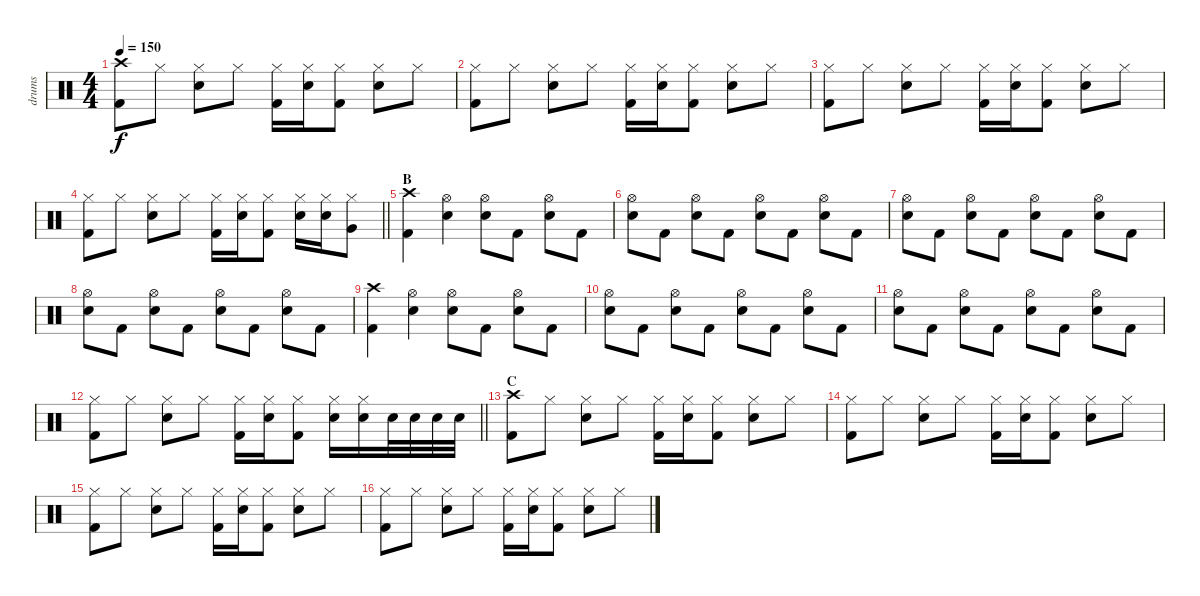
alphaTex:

\track ("drums" "drums") {instrument percussion}
\staff {score}
\articulation defaults
\ts (4 4)
\tempo 150
\clef neutral
\ks c
("Crash high (hit)" "Kick (hit) 2").8{dy f} "Hi-Hat (closed)".8 ("Hi-Hat (closed)" "Electric Snare (hit)").8 "Hi-Hat (closed)".8 ("Hi-Hat (closed)" "Kick (hit) 2").16 ("Hi-Hat (closed)" "Electric Snare (hit)").16 ("Hi-Hat (closed)" "Kick (hit) 2").8 ("Hi-Hat (closed)" "Electric Snare (hit)").8 "Hi-Hat (closed)".8 |
("Hi-Hat (closed)" "Kick (hit) 2").8 "Hi-Hat (closed)".8 ("Hi-Hat (closed)" "Electric Snare (hit)").8 "Hi-Hat (closed)".8 ("Hi-Hat (closed)" "Kick (hit) 2").16 ("Hi-Hat (closed)" "Electric Snare (hit)").16 ("Hi-Hat (closed)" "Kick (hit) 2").8 ("Hi-Hat (closed)" "Electric Snare (hit)").8 "Hi-Hat (closed)".8 |
("Hi-Hat (closed)" "Kick (hit) 2").8 "Hi-Hat (closed)".8 ("Hi-Hat (closed)" "Electric Snare (hit)").8 "Hi-Hat (closed)".8 ("Hi-Hat (closed)" "Kick (hit) 2").16 ("Hi-Hat (closed)" "Electric Snare (hit)").16 ("Hi-Hat (closed)" "Kick (hit) 2").8 ("Hi-Hat (closed)" "Electric Snare (hit)").8 "Hi-Hat (closed)".8 |
\barLineRight lightlight
("Hi-Hat (closed)" "Kick (hit) 2").8 "Hi-Hat (closed)".8 ("Hi-Hat (closed)" "Electric Snare (hit)").8 "Hi-Hat (closed)".8 ("Hi-Hat (closed)" "Kick (hit) 2").16 ("Hi-Hat (closed)" "Electric Snare (hit)").16 ("Hi-Hat (closed)" "Kick (hit) 2").8 ("Hi-Hat (closed)" "Electric Snare (hit)").16 ("Hi-Hat (closed)" "Electric Snare (hit)").16 ("Hi-Hat (closed)" "Very Low Tom (hit)").8 |
\section ("" "B")
("Crash high (hit)" "Kick (hit) 2").4 ("Hi-Hat (open)" "Electric Snare (hit)").4 ("Hi-Hat (open)" "Electric Snare (hit)").8 "Kick (hit) 2".8 ("Hi-Hat (open)" "Electric Snare (hit)").8 "Kick (hit) 2".8 |
("Hi-Hat (open)" "Electric Snare (hit)").8 "Kick (hit) 2".8 ("Hi-Hat (open)" "Electric Snare (hit)").8 "Kick (hit) 2".8 ("Hi-Hat (open)" "Electric Snare (hit)").8 "Kick (hit) 2".8 ("Hi-Hat (open)" "Electric Snare (hit)").8 "Kick (hit) 2".8 |
("Hi-Hat (open)" "Electric Snare (hit)").8 "Kick (hit) 2".8 ("Hi-Hat (open)" "Electric Snare (hit)").8 "Kick (hit) 2".8 ("Hi-Hat (open)" "Electric Snare (hit)").8 "Kick (hit) 2".8 ("Hi-Hat (open)" "Electric Snare (hit)").8 "Kick (hit) 2".8 |
("Hi-Hat (open)" "Electric Snare (hit)").8 "Kick (hit) 2".8 ("Hi-Hat (open)" "Electric Snare (hit)").8 "Kick (hit) 2".8 ("Hi-Hat (open)" "Electric Snare (hit)").8 "Kick (hit) 2".8 ("Hi-Hat (open)" "Electric Snare (hit)").8 "Kick (hit) 2".8 |
("Crash high (hit)" "Kick (hit) 2").4 ("Hi-Hat (open)" "Electric Snare (hit)").4 ("Hi-Hat (open)" "Electric Snare (hit)").8 "Kick (hit) 2".8 ("Hi-Hat (open)" "Electric Snare (hit)").8 "Kick (hit) 2".8 |
("Hi-Hat (open)" "Electric Snare (hit)").8 "Kick (hit) 2".8 ("Hi-Hat (open)" "Electric Snare (hit)").8 "Kick (hit) 2".8 ("Hi-Hat (open)" "Electric Snare (hit)").8 "Kick (hit) 2".8 ("Hi-Hat (open)" "Electric Snare (hit)").8 "Kick (hit) 2".8 |
("Hi-Hat (open)" "Electric Snare (hit)").8 "Kick (hit) 2".8 ("Hi-Hat (open)" "Electric Snare (hit)").8 "Kick (hit) 2".8 ("Hi-Hat (open)" "Electric Snare (hit)").8 "Kick (hit) 2".8 ("Hi-Hat (open)" "Electric Snare (hit)").8 "Kick (hit) 2".8 |
\barLineRight lightlight
("Hi-Hat (closed)" "Kick (hit) 2").8 "Hi-Hat (closed)".8 ("Hi-Hat (closed)" "Electric Snare (hit)").8 "Hi-Hat (closed)".8 ("Hi-Hat (closed)" "Kick (hit) 2").16 ("Hi-Hat (closed)" "Electric Snare (hit)").16 ("Hi-Hat (closed)" "Kick (hit) 2").8 ("Hi-Hat (closed)" "Electric Snare (hit)").16 ("Hi-Hat (closed)" "Electric Snare (hit)").16 "Electric Snare (hit)".32 "Electric Snare (hit)".32 "Electric Snare (hit)".32 "Electric Snare (hit)".32 |
\section ("" "C")
("Crash high (hit)" "Kick (hit) 2").8 "Hi-Hat (closed)".8 ("Hi-Hat (closed)" "Electric Snare (hit)").8 "Hi-Hat (closed)".8 ("Hi-Hat (closed)" "Kick (hit) 2").16 ("Hi-Hat (closed)" "Electric Snare (hit)").16 ("Hi-Hat (closed)" "Kick (hit) 2").8 ("Hi-Hat (closed)" "Electric Snare (hit)").8 "Hi-Hat (closed)".8 |
("Hi-Hat (closed)" "Kick (hit) 2").8 "Hi-Hat (closed)".8 ("Hi-Hat (closed)" "Electric Snare (hit)").8 "Hi-Hat (closed)".8 ("Hi-Hat (closed)" "Kick (hit) 2").16 ("Hi-Hat (closed)" "Electric Snare (hit)").16 ("Hi-Hat (closed)" "Kick (hit) 2").8 ("Hi-Hat (closed)" "Electric Snare (hit)").8 "Hi-Hat (closed)".8 |
("Hi-Hat (closed)" "Kick (hit) 2").8 "Hi-Hat (closed)".8 ("Hi-Hat (closed)" "Electric Snare (hit)").8 "Hi-Hat (closed)".8 ("Hi-Hat (closed)" "Kick (hit) 2").16 ("Hi-Hat (closed)" "Electric Snare (hit)").16 ("Hi-Hat (closed)" "Kick (hit) 2").8 ("Hi-Hat (closed)" "Electric Snare (hit)").8 "Hi-Hat (closed)".8 |
("Hi-Hat (closed)" "Kick (hit) 2").8 "Hi-Hat (closed)".8 ("Hi-Hat (closed)" "Electric Snare (hit)").8 "Hi-Hat (closed)".8 ("Hi-Hat (closed)" "Kick (hit) 2").16 ("Hi-Hat (closed)" "Electric Snare (hit)").16 ("Hi-Hat (closed)" "Kick (hit) 2").8 ("Hi-Hat (closed)" "Electric Snare (hit)").8 "Hi-Hat (closed)".8
